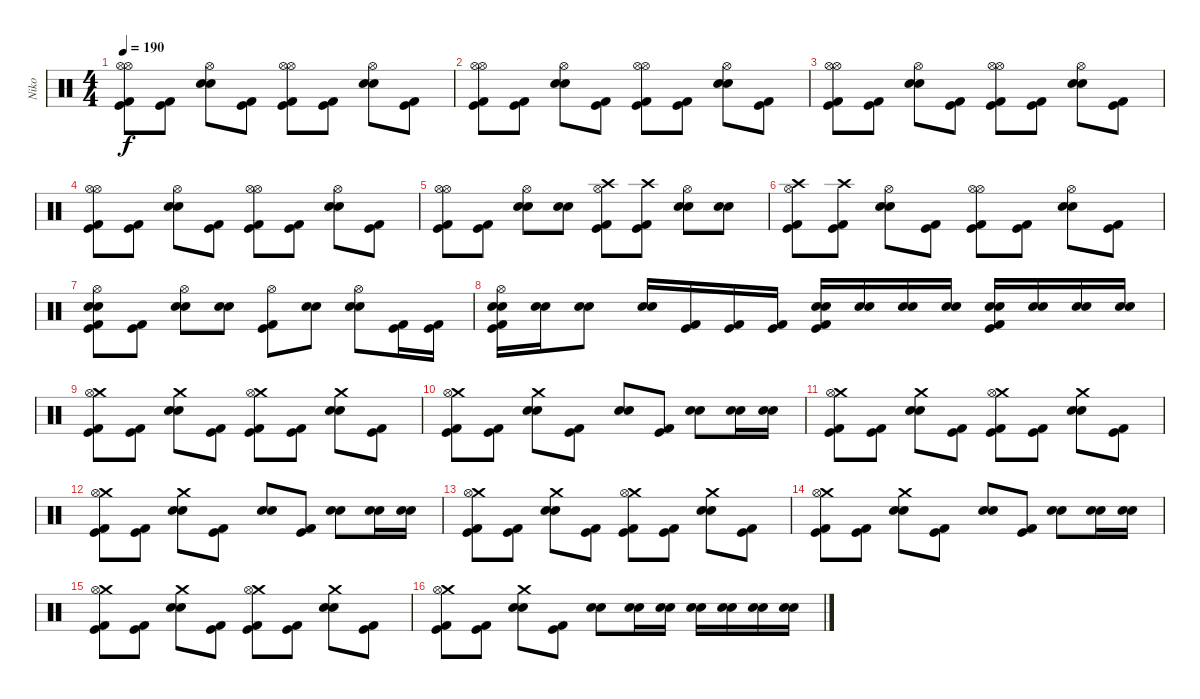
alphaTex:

\track ("Niko" "Niko") {instrument percussion}
\staff {score}
\articulation defaults
\ts (4 4)
\tempo 190
\clef neutral
\ks c
("Hi-Hat (open)" "Hi-Hat (open)" "Kick (hit)" "Kick (hit) 2").8{dy f} ("Kick (hit) 2" "Kick (hit)").8 ("Hi-Hat (open)" "Electric Snare (hit)" "Electric Snare (hit)").8 ("Kick (hit) 2" "Kick (hit)").8 ("Hi-Hat (open)" "Hi-Hat (open)" "Kick (hit)" "Kick (hit) 2").8 ("Kick (hit) 2" "Kick (hit)").8 ("Hi-Hat (open)" "Electric Snare (hit)" "Electric Snare (hit)").8 ("Kick (hit) 2" "Kick (hit)").8 |
("Hi-Hat (open)" "Hi-Hat (open)" "Kick (hit)" "Kick (hit) 2").8 ("Kick (hit) 2" "Kick (hit)").8 ("Hi-Hat (open)" "Electric Snare (hit)" "Electric Snare (hit)").8 ("Kick (hit) 2" "Kick (hit)").8 ("Hi-Hat (open)" "Hi-Hat (open)" "Kick (hit)" "Kick (hit) 2").8 ("Kick (hit) 2" "Kick (hit)").8 ("Hi-Hat (open)" "Electric Snare (hit)" "Electric Snare (hit)").8 ("Kick (hit) 2" "Kick (hit)").8 |
("Hi-Hat (open)" "Hi-Hat (open)" "Kick (hit)" "Kick (hit) 2").8 ("Kick (hit) 2" "Kick (hit)").8 ("Hi-Hat (open)" "Electric Snare (hit)" "Electric Snare (hit)").8 ("Kick (hit) 2" "Kick (hit)").8 ("Hi-Hat (open)" "Hi-Hat (open)" "Kick (hit)" "Kick (hit) 2").8 ("Kick (hit) 2" "Kick (hit)").8 ("Hi-Hat (open)" "Electric Snare (hit)" "Electric Snare (hit)").8 ("Kick (hit) 2" "Kick (hit)").8 |
("Hi-Hat (open)" "Hi-Hat (open)" "Kick (hit)" "Kick (hit) 2").8 ("Kick (hit) 2" "Kick (hit)").8 ("Hi-Hat (open)" "Electric Snare (hit)" "Electric Snare (hit)").8 ("Kick (hit) 2" "Kick (hit)").8 ("Hi-Hat (open)" "Hi-Hat (open)" "Kick (hit)" "Kick (hit) 2").8 ("Kick (hit) 2" "Kick (hit)").8 ("Hi-Hat (open)" "Electric Snare (hit)" "Electric Snare (hit)").8 ("Kick (hit) 2" "Kick (hit)").8 |
("Hi-Hat (open)" "Hi-Hat (open)" "Kick (hit)" "Kick (hit) 2").8 ("Kick (hit) 2" "Kick (hit)").8 ("Hi-Hat (open)" "Electric Snare (hit)" "Electric Snare (hit)").8 ("Electric Snare (hit)" "Electric Snare (hit)").8 ("Crash high (hit)" "Hi-Hat (open)" "Kick (hit)" "Kick (hit) 2").8 ("Crash high (hit)" "Kick (hit) 2" "Kick (hit)").8 ("Hi-Hat (open)" "Electric Snare (hit)" "Electric Snare (hit)").8 ("Electric Snare (hit)" "Electric Snare (hit)").8 |
("Crash high (hit)" "Hi-Hat (open)" "Kick (hit)" "Kick (hit) 2").8 ("Crash high (hit)" "Kick (hit) 2" "Kick (hit)").8 ("Hi-Hat (open)" "Electric Snare (hit)" "Electric Snare (hit)").8 ("Kick (hit) 2" "Kick (hit)").8 ("Hi-Hat (open)" "Hi-Hat (open)" "Kick (hit)" "Kick (hit) 2").8 ("Kick (hit) 2" "Kick (hit)").8 ("Hi-Hat (open)" "Electric Snare (hit)" "Electric Snare (hit)").8 ("Kick (hit) 2" "Kick (hit)").8 |
("Hi-Hat (open)" "Electric Snare (hit)" "Electric Snare (hit)" "Kick (hit)" "Kick (hit) 2").8 ("Kick (hit) 2" "Kick (hit)").8 ("Hi-Hat (open)" "Electric Snare (hit)" "Electric Snare (hit)").8 ("Electric Snare (hit)" "Electric Snare (hit)").8 ("Hi-Hat (open)" "Kick (hit) 2" "Kick (hit)").8 ("Electric Snare (hit)" "Electric Snare (hit)").8 ("Hi-Hat (open)" "Electric Snare (hit)" "Electric Snare (hit)").8 ("Kick (hit) 2" "Kick (hit)").16 ("Kick (hit)" "Kick (hit) 2").16 |
("Hi-Hat (open)" "Electric Snare (hit)" "Electric Snare (hit)" "Kick (hit)" "Kick (hit) 2").16 ("Electric Snare (hit)" "Electric Snare (hit)").16 ("Electric Snare (hit)" "Electric Snare (hit)").8 ("Electric Snare (hit)" "Electric Snare (hit)").16 ("Kick (hit)" "Kick (hit) 2").16 ("Kick (hit) 2" "Kick (hit)").16 ("Kick (hit) 2" "Kick (hit)").16 ("Electric Snare (hit)" "Electric Snare (hit)" "Kick (hit) 2" "Kick (hit)").16 ("Electric Snare (hit)" "Electric Snare (hit)").16 ("Electric Snare (hit)" "Electric Snare (hit)").16 ("Electric Snare (hit)" "Electric Snare (hit)").16 ("Electric Snare (hit)" "Electric Snare (hit)" "Kick (hit) 2" "Kick (hit)").16 ("Electric Snare (hit)" "Electric Snare (hit)").16 ("Electric Snare (hit)" "Electric Snare (hit)").16 ("Electric Snare (hit)" "Electric Snare (hit)").16 |
("Crash medium (hit)" "Hi-Hat (open)" "Kick (hit)" "Kick (hit) 2").8 ("Kick (hit) 2" "Kick (hit)").8 ("Crash medium (hit)" "Electric Snare (hit)" "Electric Snare (hit)").8 ("Kick (hit) 2" "Kick (hit)").8 ("Crash medium (hit)" "Hi-Hat (open)" "Kick (hit)" "Kick (hit) 2").8 ("Kick (hit) 2" "Kick (hit)").8 ("Crash medium (hit)" "Electric Snare (hit)" "Electric Snare (hit)").8 ("Kick (hit) 2" "Kick (hit)").8 |
("Crash medium (hit)" "Hi-Hat (open)" "Kick (hit)" "Kick (hit) 2").8 ("Kick (hit) 2" "Kick (hit)").8 ("Crash medium (hit)" "Electric Snare (hit)" "Electric Snare (hit)").8 ("Kick (hit) 2" "Kick (hit)").8 ("Electric Snare (hit)" "Electric Snare (hit)").8 ("Kick (hit) 2" "Kick (hit)").8 ("Electric Snare (hit)" "Electric Snare (hit)").8 ("Electric Snare (hit)" "Electric Snare (hit)").16 ("Electric Snare (hit)" "Electric Snare (hit)").16 |
("Crash medium (hit)" "Hi-Hat (open)" "Kick (hit)" "Kick (hit) 2").8 ("Kick (hit) 2" "Kick (hit)").8 ("Crash medium (hit)" "Electric Snare (hit)" "Electric Snare (hit)").8 ("Kick (hit) 2" "Kick (hit)").8 ("Crash medium (hit)" "Hi-Hat (open)" "Kick (hit)" "Kick (hit) 2").8 ("Kick (hit) 2" "Kick (hit)").8 ("Crash medium (hit)" "Electric Snare (hit)" "Electric Snare (hit)").8 ("Kick (hit) 2" "Kick (hit)").8 |
("Crash medium (hit)" "Hi-Hat (open)" "Kick (hit)" "Kick (hit) 2").8 ("Kick (hit) 2" "Kick (hit)").8 ("Crash medium (hit)" "Electric Snare (hit)" "Electric Snare (hit)").8 ("Kick (hit) 2" "Kick (hit)").8 ("Electric Snare (hit)" "Electric Snare (hit)").8 ("Kick (hit) 2" "Kick (hit)").8 ("Electric Snare (hit)" "Electric Snare (hit)").8 ("Electric Snare (hit)" "Electric Snare (hit)").16 ("Electric Snare (hit)" "Electric Snare (hit)").16 |
("Crash medium (hit)" "Hi-Hat (open)" "Kick (hit)" "Kick (hit) 2").8 ("Kick (hit) 2" "Kick (hit)").8 ("Crash medium (hit)" "Electric Snare (hit)" "Electric Snare (hit)").8 ("Kick (hit) 2" "Kick (hit)").8 ("Crash medium (hit)" "Hi-Hat (open)" "Kick (hit)" "Kick (hit) 2").8 ("Kick (hit) 2" "Kick (hit)").8 ("Crash medium (hit)" "Electric Snare (hit)" "Electric Snare (hit)").8 ("Kick (hit) 2" "Kick (hit)").8 |
("Crash medium (hit)" "Hi-Hat (open)" "Kick (hit)" "Kick (hit) 2").8 ("Kick (hit) 2" "Kick (hit)").8 ("Crash medium (hit)" "Electric Snare (hit)" "Electric Snare (hit)").8 ("Kick (hit) 2" "Kick (hit)").8 ("Electric Snare (hit)" "Electric Snare (hit)").8 ("Kick (hit) 2" "Kick (hit)").8 ("Electric Snare (hit)" "Electric Snare (hit)").8 ("Electric Snare (hit)" "Electric Snare (hit)").16 ("Electric Snare (hit)" "Electric Snare (hit)").16 |
("Crash medium (hit)" "Hi-Hat (open)" "Kick (hit)" "Kick (hit) 2").8 ("Kick (hit) 2" "Kick (hit)").8 ("Crash medium (hit)" "Electric Snare (hit)" "Electric Snare (hit)").8 ("Kick (hit) 2" "Kick (hit)").8 ("Crash medium (hit)" "Hi-Hat (open)" "Kick (hit)" "Kick (hit) 2").8 ("Kick (hit) 2" "Kick (hit)").8 ("Crash medium (hit)" "Electric Snare (hit)" "Electric Snare (hit)").8 ("Kick (hit) 2" "Kick (hit)").8 |
("Crash medium (hit)" "Hi-Hat (open)" "Kick (hit)" "Kick (hit) 2").8 ("Kick (hit) 2" "Kick (hit)").8 ("Crash medium (hit)" "Electric Snare (hit)" "Electric Snare (hit)").8 ("Kick (hit) 2" "Kick (hit)").8 ("Electric Snare (hit)" "Electric Snare (hit)").8 ("Electric Snare (hit)" "Electric Snare (hit)").16 ("Electric Snare (hit)" "Electric Snare (hit)").16 ("Electric Snare (hit)" "Electric Snare (hit)").16 ("Electric Snare (hit)" "Electric Snare (hit)").16 ("Electric Snare (hit)" "Electric Snare (hit)").16 ("Electric Snare (hit)" "Electric Snare (hit)").16
